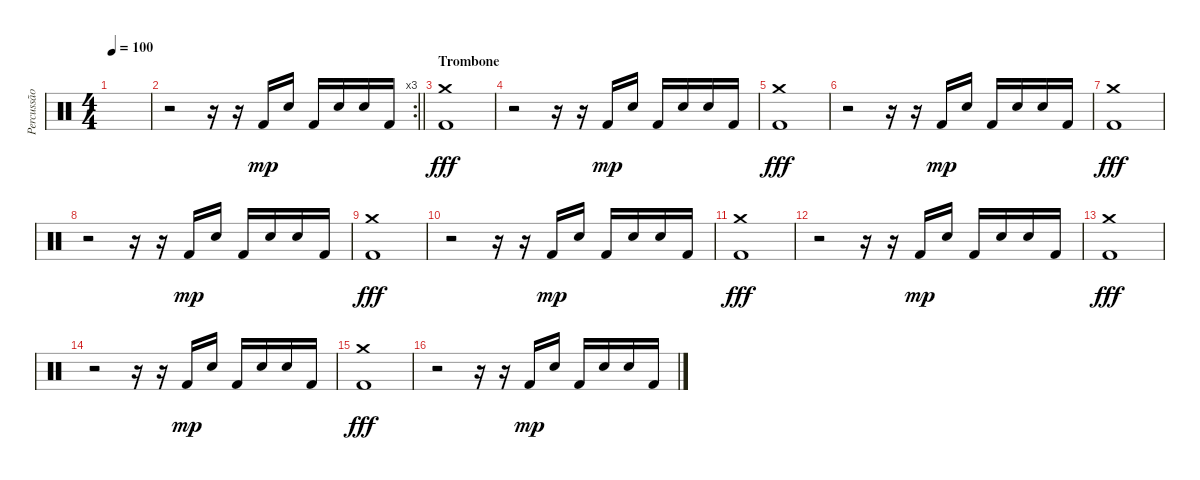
\track ("Percussão" "Percussão") {instrument percussion}
\staff {score}
\articulation defaults
\ts (4 4)
\tempo 100
\clef neutral
\ks c
|
\rc 3
\barLineRight lightlight
r.2 r.16 r.16 "Kick (hit) 2".16{dy mp} "Snare (hit) 2".16 "Kick (hit) 2".16 "Snare (hit) 2".16 "Snare (hit) 2".16 "Kick (hit) 2".16 |
\section ("" "Trombone")
("Crash medium (hit)" "Kick (hit) 2").1{dy fff} |
r.2 r.16 r.16 "Kick (hit) 2".16{dy mp} "Snare (hit) 2".16 "Kick (hit) 2".16 "Snare (hit) 2".16 "Snare (hit) 2".16 "Kick (hit) 2".16 |
("Crash medium (hit)" "Kick (hit) 2").1{dy fff} |
r.2 r.16 r.16 "Kick (hit) 2".16{dy mp} "Snare (hit) 2".16 "Kick (hit) 2".16 "Snare (hit) 2".16 "Snare (hit) 2".16 "Kick (hit) 2".16 |
("Crash medium (hit)" "Kick (hit) 2").1{dy fff} |
r.2 r.16 r.16 "Kick (hit) 2".16{dy mp} "Snare (hit) 2".16 "Kick (hit) 2".16 "Snare (hit) 2".16 "Snare (hit) 2".16 "Kick (hit) 2".16 |
("Crash medium (hit)" "Kick (hit) 2").1{dy fff} |
r.2 r.16 r.16 "Kick (hit) 2".16{dy mp} "Snare (hit) 2".16 "Kick (hit) 2".16 "Snare (hit) 2".16 "Snare (hit) 2".16 "Kick (hit) 2".16 |
("Crash medium (hit)" "Kick (hit) 2").1{dy fff} |
r.2 r.16 r.16 "Kick (hit) 2".16{dy mp} "Snare (hit) 2".16 "Kick (hit) 2".16 "Snare (hit) 2".16 "Snare (hit) 2".16 "Kick (hit) 2".16 |
("Crash medium (hit)" "Kick (hit) 2").1{dy fff} |
r.2 r.16 r.16 "Kick (hit) 2".16{dy mp} "Snare (hit) 2".16 "Kick (hit) 2".16 "Snare (hit) 2".16 "Snare (hit) 2".16 "Kick (hit) 2".16 |
("Crash medium (hit)" "Kick (hit) 2").1{dy fff} |
r.2 r.16 r.16 "Kick (hit) 2".16{dy mp} "Snare (hit) 2".16 "Kick (hit) 2".16 "Snare (hit) 2".16 "Snare (hit) 2".16 "Kick (hit) 2".16
